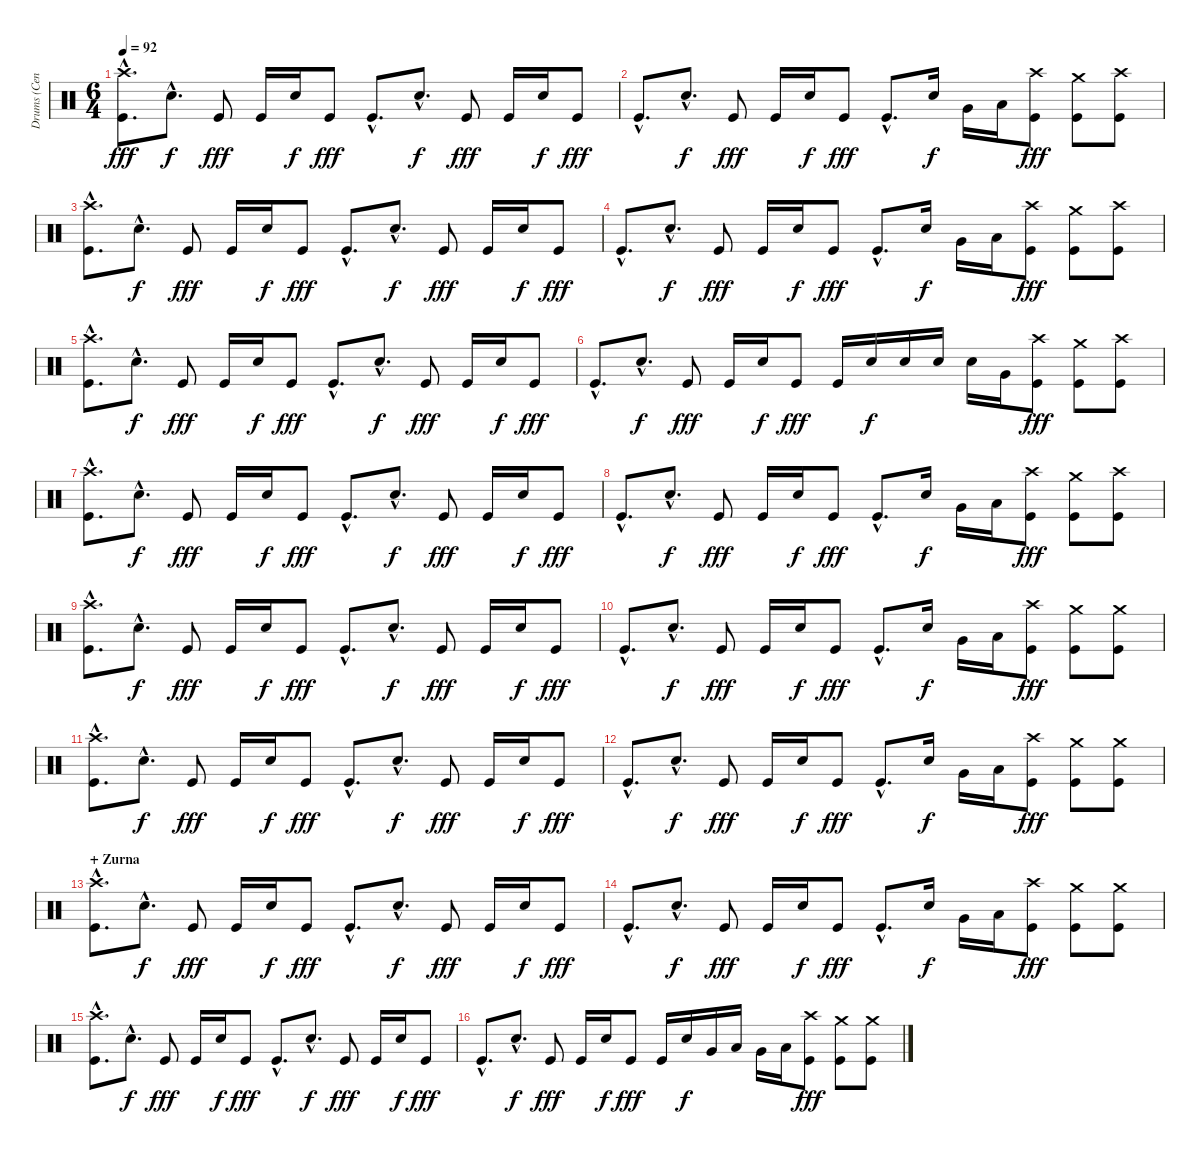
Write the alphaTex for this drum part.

\track ("Drums (Cenk)" "Drums (Cen") {instrument percussion}
\staff {score}
\articulation defaults
\ts (6 4)
\tempo 92
\clef neutral
\ks c
("Crash high (hit)"{hac} "Kick (hit)"{hac}).8{d dy fff} "Snare (hit) 2"{hac}.8{d dy f} "Kick (hit)".8{dy fff} "Kick (hit)".16 "Snare (hit) 2".16{dy f} "Kick (hit)".8{dy fff} "Kick (hit)"{hac}.8{d} "Snare (hit) 2"{hac}.8{d dy f} "Kick (hit)".8{dy fff} "Kick (hit)".16 "Snare (hit) 2".16{dy f} "Kick (hit)".8{dy fff} |
"Kick (hit)"{hac}.8{d} "Snare (hit) 2"{hac}.8{d dy f} "Kick (hit)".8{dy fff} "Kick (hit)".16 "Snare (hit) 2".16{dy f} "Kick (hit)".8{dy fff} "Kick (hit)"{hac}.8{d} "Snare (hit) 2".16{dy f} "Very Low Tom (hit)".16 "Low Floor Tom (hit)".16 ("Crash high (hit)" "Kick (hit)").8{dy fff} ("Crash medium (hit)" "Kick (hit)").8 ("Crash high (hit)" "Kick (hit)").8 |
("Crash high (hit)"{hac} "Kick (hit)"{hac}).8{d} "Snare (hit) 2"{hac}.8{d dy f} "Kick (hit)".8{dy fff} "Kick (hit)".16 "Snare (hit) 2".16{dy f} "Kick (hit)".8{dy fff} "Kick (hit)"{hac}.8{d} "Snare (hit) 2"{hac}.8{d dy f} "Kick (hit)".8{dy fff} "Kick (hit)".16 "Snare (hit) 2".16{dy f} "Kick (hit)".8{dy fff} |
"Kick (hit)"{hac}.8{d} "Snare (hit) 2"{hac}.8{d dy f} "Kick (hit)".8{dy fff} "Kick (hit)".16 "Snare (hit) 2".16{dy f} "Kick (hit)".8{dy fff} "Kick (hit)"{hac}.8{d} "Snare (hit) 2".16{dy f} "Very Low Tom (hit)".16 "Low Floor Tom (hit)".16 ("Crash high (hit)" "Kick (hit)").8{dy fff} ("Crash medium (hit)" "Kick (hit)").8 ("Crash high (hit)" "Kick (hit)").8 |
("Crash high (hit)"{hac} "Kick (hit)"{hac}).8{d} "Snare (hit) 2"{hac}.8{d dy f} "Kick (hit)".8{dy fff} "Kick (hit)".16 "Snare (hit) 2".16{dy f} "Kick (hit)".8{dy fff} "Kick (hit)"{hac}.8{d} "Snare (hit) 2"{hac}.8{d dy f} "Kick (hit)".8{dy fff} "Kick (hit)".16 "Snare (hit) 2".16{dy f} "Kick (hit)".8{dy fff} |
"Kick (hit)"{hac}.8{d} "Snare (hit) 2"{hac}.8{d dy f} "Kick (hit)".8{dy fff} "Kick (hit)".16 "Snare (hit) 2".16{dy f} "Kick (hit)".8{dy fff} "Kick (hit)".16 "Snare (hit) 2".16{dy f} "Snare (hit) 2".16 "Snare (hit) 2".16 "Snare (hit) 2".16 "Very Low Tom (hit)".16 ("Crash high (hit)" "Kick (hit)").8{dy fff} ("Crash medium (hit)" "Kick (hit)").8 ("Crash high (hit)" "Kick (hit)").8 |
("Crash high (hit)"{hac} "Kick (hit)"{hac}).8{d} "Snare (hit) 2"{hac}.8{d dy f} "Kick (hit)".8{dy fff} "Kick (hit)".16 "Snare (hit) 2".16{dy f} "Kick (hit)".8{dy fff} "Kick (hit)"{hac}.8{d} "Snare (hit) 2"{hac}.8{d dy f} "Kick (hit)".8{dy fff} "Kick (hit)".16 "Snare (hit) 2".16{dy f} "Kick (hit)".8{dy fff} |
"Kick (hit)"{hac}.8{d} "Snare (hit) 2"{hac}.8{d dy f} "Kick (hit)".8{dy fff} "Kick (hit)".16 "Snare (hit) 2".16{dy f} "Kick (hit)".8{dy fff} "Kick (hit)"{hac}.8{d} "Snare (hit) 2".16{dy f} "Very Low Tom (hit)".16 "Low Floor Tom (hit)".16 ("Crash high (hit)" "Kick (hit)").8{dy fff} ("Crash medium (hit)" "Kick (hit)").8 ("Crash high (hit)" "Kick (hit)").8 |
("Crash high (hit)"{hac} "Kick (hit)"{hac}).8{d} "Snare (hit) 2"{hac}.8{d dy f} "Kick (hit)".8{dy fff} "Kick (hit)".16 "Snare (hit) 2".16{dy f} "Kick (hit)".8{dy fff} "Kick (hit)"{hac}.8{d} "Snare (hit) 2"{hac}.8{d dy f} "Kick (hit)".8{dy fff} "Kick (hit)".16 "Snare (hit) 2".16{dy f} "Kick (hit)".8{dy fff} |
"Kick (hit)"{hac}.8{d} "Snare (hit) 2"{hac}.8{d dy f} "Kick (hit)".8{dy fff} "Kick (hit)".16 "Snare (hit) 2".16{dy f} "Kick (hit)".8{dy fff} "Kick (hit)"{hac}.8{d} "Snare (hit) 2".16{dy f} "Very Low Tom (hit)".16 "Low Floor Tom (hit)".16 ("Crash high (hit)" "Kick (hit)").8{dy fff} ("Crash medium (hit)" "Kick (hit)").8 ("Crash medium (hit)" "Kick (hit)").8 |
("Crash high (hit)"{hac} "Kick (hit)"{hac}).8{d} "Snare (hit) 2"{hac}.8{d dy f} "Kick (hit)".8{dy fff} "Kick (hit)".16 "Snare (hit) 2".16{dy f} "Kick (hit)".8{dy fff} "Kick (hit)"{hac}.8{d} "Snare (hit) 2"{hac}.8{d dy f} "Kick (hit)".8{dy fff} "Kick (hit)".16 "Snare (hit) 2".16{dy f} "Kick (hit)".8{dy fff} |
"Kick (hit)"{hac}.8{d} "Snare (hit) 2"{hac}.8{d dy f} "Kick (hit)".8{dy fff} "Kick (hit)".16 "Snare (hit) 2".16{dy f} "Kick (hit)".8{dy fff} "Kick (hit)"{hac}.8{d} "Snare (hit) 2".16{dy f} "Very Low Tom (hit)".16 "Low Floor Tom (hit)".16 ("Crash high (hit)" "Kick (hit)").8{dy fff} ("Crash medium (hit)" "Kick (hit)").8 ("Crash medium (hit)" "Kick (hit)").8 |
\section ("" "+ Zurna")
("Crash high (hit)"{hac} "Kick (hit)"{hac}).8{d} "Snare (hit) 2"{hac}.8{d dy f} "Kick (hit)".8{dy fff} "Kick (hit)".16 "Snare (hit) 2".16{dy f} "Kick (hit)".8{dy fff} "Kick (hit)"{hac}.8{d} "Snare (hit) 2"{hac}.8{d dy f} "Kick (hit)".8{dy fff} "Kick (hit)".16 "Snare (hit) 2".16{dy f} "Kick (hit)".8{dy fff} |
"Kick (hit)"{hac}.8{d} "Snare (hit) 2"{hac}.8{d dy f} "Kick (hit)".8{dy fff} "Kick (hit)".16 "Snare (hit) 2".16{dy f} "Kick (hit)".8{dy fff} "Kick (hit)"{hac}.8{d} "Snare (hit) 2".16{dy f} "Very Low Tom (hit)".16 "Low Floor Tom (hit)".16 ("Crash high (hit)" "Kick (hit)").8{dy fff} ("Crash medium (hit)" "Kick (hit)").8 ("Crash medium (hit)" "Kick (hit)").8 |
("Crash high (hit)"{hac} "Kick (hit)"{hac}).8{d} "Snare (hit) 2"{hac}.8{d dy f} "Kick (hit)".8{dy fff} "Kick (hit)".16 "Snare (hit) 2".16{dy f} "Kick (hit)".8{dy fff} "Kick (hit)"{hac}.8{d} "Snare (hit) 2"{hac}.8{d dy f} "Kick (hit)".8{dy fff} "Kick (hit)".16 "Snare (hit) 2".16{dy f} "Kick (hit)".8{dy fff} |
"Kick (hit)"{hac}.8{d} "Snare (hit) 2"{hac}.8{d dy f} "Kick (hit)".8{dy fff} "Kick (hit)".16 "Snare (hit) 2".16{dy f} "Kick (hit)".8{dy fff} "Kick (hit)".16 "Snare (hit) 2".16{dy f} "Very Low Tom (hit)".16 "Low Tom (hit)".16 "Very Low Tom (hit)".16 "Low Floor Tom (hit)".16 ("Crash high (hit)" "Kick (hit)").8{dy fff} ("Crash medium (hit)" "Kick (hit)").8 ("Crash medium (hit)" "Kick (hit)").8
